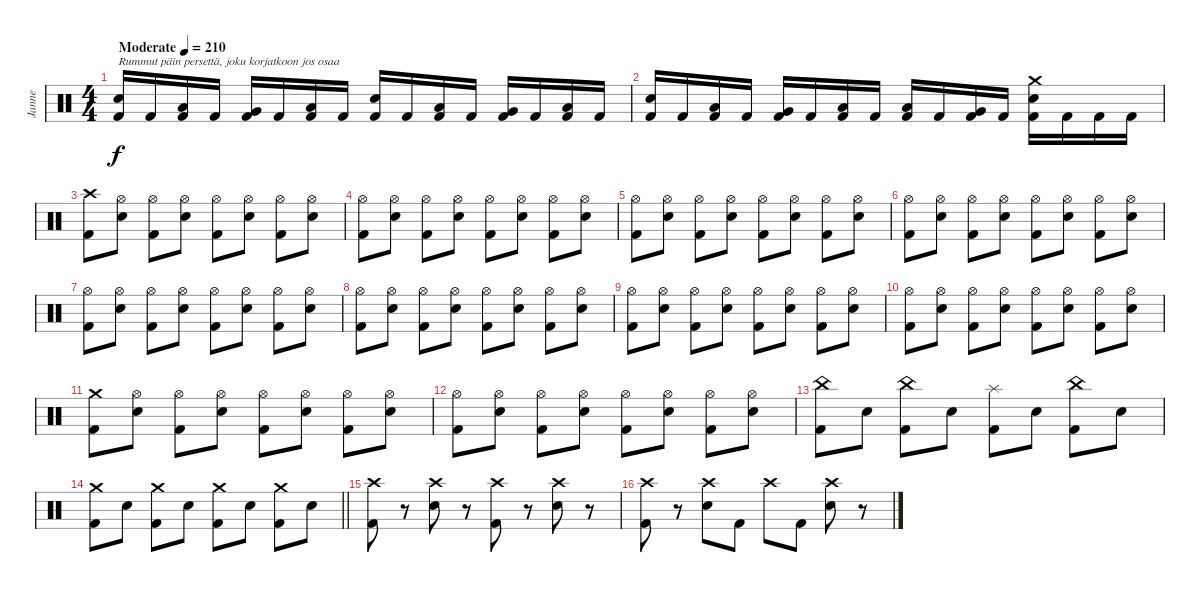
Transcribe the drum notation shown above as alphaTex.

\track ("Janne" "Janne") {instrument percussion}
\staff {score}
\articulation defaults
\ts (4 4)
\tempo (210 "Moderate")
\clef neutral
\ks c
("Electric Snare (hit)" "Kick (hit) 2").16{txt "Rummut päin persettä, joku korjatkoon jos osaa" dy f} "Kick (hit) 2".16 ("Low Tom (hit)" "Kick (hit) 2").16 "Kick (hit) 2".16 ("Very Low Tom (hit)" "Kick (hit) 2").16 "Kick (hit) 2".16 ("Low Floor Tom (hit)" "Kick (hit) 2").16 "Kick (hit) 2".16 ("Electric Snare (hit)" "Kick (hit) 2").16 "Kick (hit) 2".16 ("Low Tom (hit)" "Kick (hit) 2").16 "Kick (hit) 2".16 ("Very Low Tom (hit)" "Kick (hit) 2").16 "Kick (hit) 2".16 ("Low Floor Tom (hit)" "Kick (hit) 2").16 "Kick (hit) 2".16 |
("Electric Snare (hit)" "Kick (hit) 2").16 "Kick (hit) 2".16 ("Low Tom (hit)" "Kick (hit) 2").16 "Kick (hit) 2".16 ("Very Low Tom (hit)" "Kick (hit) 2").16 "Kick (hit) 2".16 ("Low Floor Tom (hit)" "Kick (hit) 2").16 "Kick (hit) 2".16 ("Low Floor Tom (hit)" "Kick (hit) 2").16 "Kick (hit) 2".16 ("Very Low Tom (hit)" "Kick (hit) 2").16 "Kick (hit) 2".16 ("Crash medium (hit)" "Electric Snare (hit)" "Kick (hit) 2").16 "Kick (hit) 2".16 "Kick (hit) 2".16 "Kick (hit) 2".16 |
("Crash high (hit)" "Kick (hit) 2").8 ("Hi-Hat (open)" "Electric Snare (hit)").8 ("Hi-Hat (open)" "Kick (hit) 2").8 ("Hi-Hat (open)" "Electric Snare (hit)").8 ("Hi-Hat (open)" "Kick (hit) 2").8 ("Hi-Hat (open)" "Electric Snare (hit)").8 ("Hi-Hat (open)" "Kick (hit) 2").8 ("Hi-Hat (open)" "Electric Snare (hit)").8 |
("Hi-Hat (open)" "Kick (hit) 2").8 ("Hi-Hat (open)" "Electric Snare (hit)").8 ("Hi-Hat (open)" "Kick (hit) 2").8 ("Hi-Hat (open)" "Electric Snare (hit)").8 ("Hi-Hat (open)" "Kick (hit) 2").8 ("Hi-Hat (open)" "Electric Snare (hit)").8 ("Hi-Hat (open)" "Kick (hit) 2").8 ("Hi-Hat (open)" "Electric Snare (hit)").8 |
("Hi-Hat (open)" "Kick (hit) 2").8 ("Hi-Hat (open)" "Electric Snare (hit)").8 ("Hi-Hat (open)" "Kick (hit) 2").8 ("Hi-Hat (open)" "Electric Snare (hit)").8 ("Hi-Hat (open)" "Kick (hit) 2").8 ("Hi-Hat (open)" "Electric Snare (hit)").8 ("Hi-Hat (open)" "Kick (hit) 2").8 ("Hi-Hat (open)" "Electric Snare (hit)").8 |
("Hi-Hat (open)" "Kick (hit) 2").8 ("Hi-Hat (open)" "Electric Snare (hit)").8 ("Hi-Hat (open)" "Kick (hit) 2").8 ("Hi-Hat (open)" "Electric Snare (hit)").8 ("Hi-Hat (open)" "Kick (hit) 2").8 ("Hi-Hat (open)" "Electric Snare (hit)").8 ("Hi-Hat (open)" "Kick (hit) 2").8 ("Hi-Hat (open)" "Electric Snare (hit)").8 |
("Hi-Hat (open)" "Kick (hit) 2").8 ("Hi-Hat (open)" "Electric Snare (hit)").8 ("Hi-Hat (open)" "Kick (hit) 2").8 ("Hi-Hat (open)" "Electric Snare (hit)").8 ("Hi-Hat (open)" "Kick (hit) 2").8 ("Hi-Hat (open)" "Electric Snare (hit)").8 ("Hi-Hat (open)" "Kick (hit) 2").8 ("Hi-Hat (open)" "Electric Snare (hit)").8 |
("Hi-Hat (open)" "Kick (hit) 2").8 ("Hi-Hat (open)" "Electric Snare (hit)").8 ("Hi-Hat (open)" "Kick (hit) 2").8 ("Hi-Hat (open)" "Electric Snare (hit)").8 ("Hi-Hat (open)" "Kick (hit) 2").8 ("Hi-Hat (open)" "Electric Snare (hit)").8 ("Hi-Hat (open)" "Kick (hit) 2").8 ("Hi-Hat (open)" "Electric Snare (hit)").8 |
("Hi-Hat (open)" "Kick (hit) 2").8 ("Hi-Hat (open)" "Electric Snare (hit)").8 ("Hi-Hat (open)" "Kick (hit) 2").8 ("Hi-Hat (open)" "Electric Snare (hit)").8 ("Hi-Hat (open)" "Kick (hit) 2").8 ("Hi-Hat (open)" "Electric Snare (hit)").8 ("Hi-Hat (open)" "Kick (hit) 2").8 ("Hi-Hat (open)" "Electric Snare (hit)").8 |
("Hi-Hat (open)" "Kick (hit) 2").8 ("Hi-Hat (open)" "Electric Snare (hit)").8 ("Hi-Hat (open)" "Kick (hit) 2").8 ("Hi-Hat (open)" "Electric Snare (hit)").8 ("Hi-Hat (open)" "Kick (hit) 2").8 ("Hi-Hat (open)" "Electric Snare (hit)").8 ("Hi-Hat (open)" "Kick (hit) 2").8 ("Hi-Hat (open)" "Electric Snare (hit)").8 |
("Crash medium (hit)" "Kick (hit) 2").8 ("Hi-Hat (open)" "Electric Snare (hit)").8 ("Hi-Hat (open)" "Kick (hit) 2").8 ("Hi-Hat (open)" "Electric Snare (hit)").8 ("Hi-Hat (open)" "Kick (hit) 2").8 ("Hi-Hat (open)" "Electric Snare (hit)").8 ("Hi-Hat (open)" "Kick (hit) 2").8 ("Hi-Hat (open)" "Electric Snare (hit)").8 |
("Hi-Hat (open)" "Kick (hit) 2").8 ("Hi-Hat (open)" "Electric Snare (hit)").8 ("Hi-Hat (open)" "Kick (hit) 2").8 ("Hi-Hat (open)" "Electric Snare (hit)").8 ("Hi-Hat (open)" "Kick (hit) 2").8 ("Hi-Hat (open)" "Electric Snare (hit)").8 ("Hi-Hat (open)" "Kick (hit) 2").8 ("Hi-Hat (open)" "Electric Snare (hit)").8 |
("China (hit)" "Kick (hit) 2").8 "Electric Snare (hit)".8 ("China (hit)" "Kick (hit) 2").8 "Electric Snare (hit)".8 ("Splash (hit)" "Kick (hit) 2").8 "Electric Snare (hit)".8 ("China (hit)" "Kick (hit) 2").8 "Electric Snare (hit)".8 |
\barLineRight lightlight
("Crash medium (hit)" "Kick (hit) 2").8 "Electric Snare (hit)".8 ("Crash medium (hit)" "Kick (hit) 2").8 "Electric Snare (hit)".8 ("Crash medium (hit)" "Kick (hit) 2").8 "Electric Snare (hit)".8 ("Crash medium (hit)" "Kick (hit) 2").8 "Electric Snare (hit)".8 |
("Crash high (hit)" "Kick (hit) 2").8 r.8 ("Crash high (hit)" "Electric Snare (hit)").8 r.8 ("Crash high (hit)" "Kick (hit) 2").8 r.8 ("Crash high (hit)" "Electric Snare (hit)").8 r.8 |
("Crash high (hit)" "Kick (hit) 2").8 r.8 ("Crash high (hit)" "Electric Snare (hit)").8 "Kick (hit) 2".8 "Crash high (hit)".8 "Kick (hit) 2".8 ("Crash high (hit)" "Electric Snare (hit)").8 r.8
